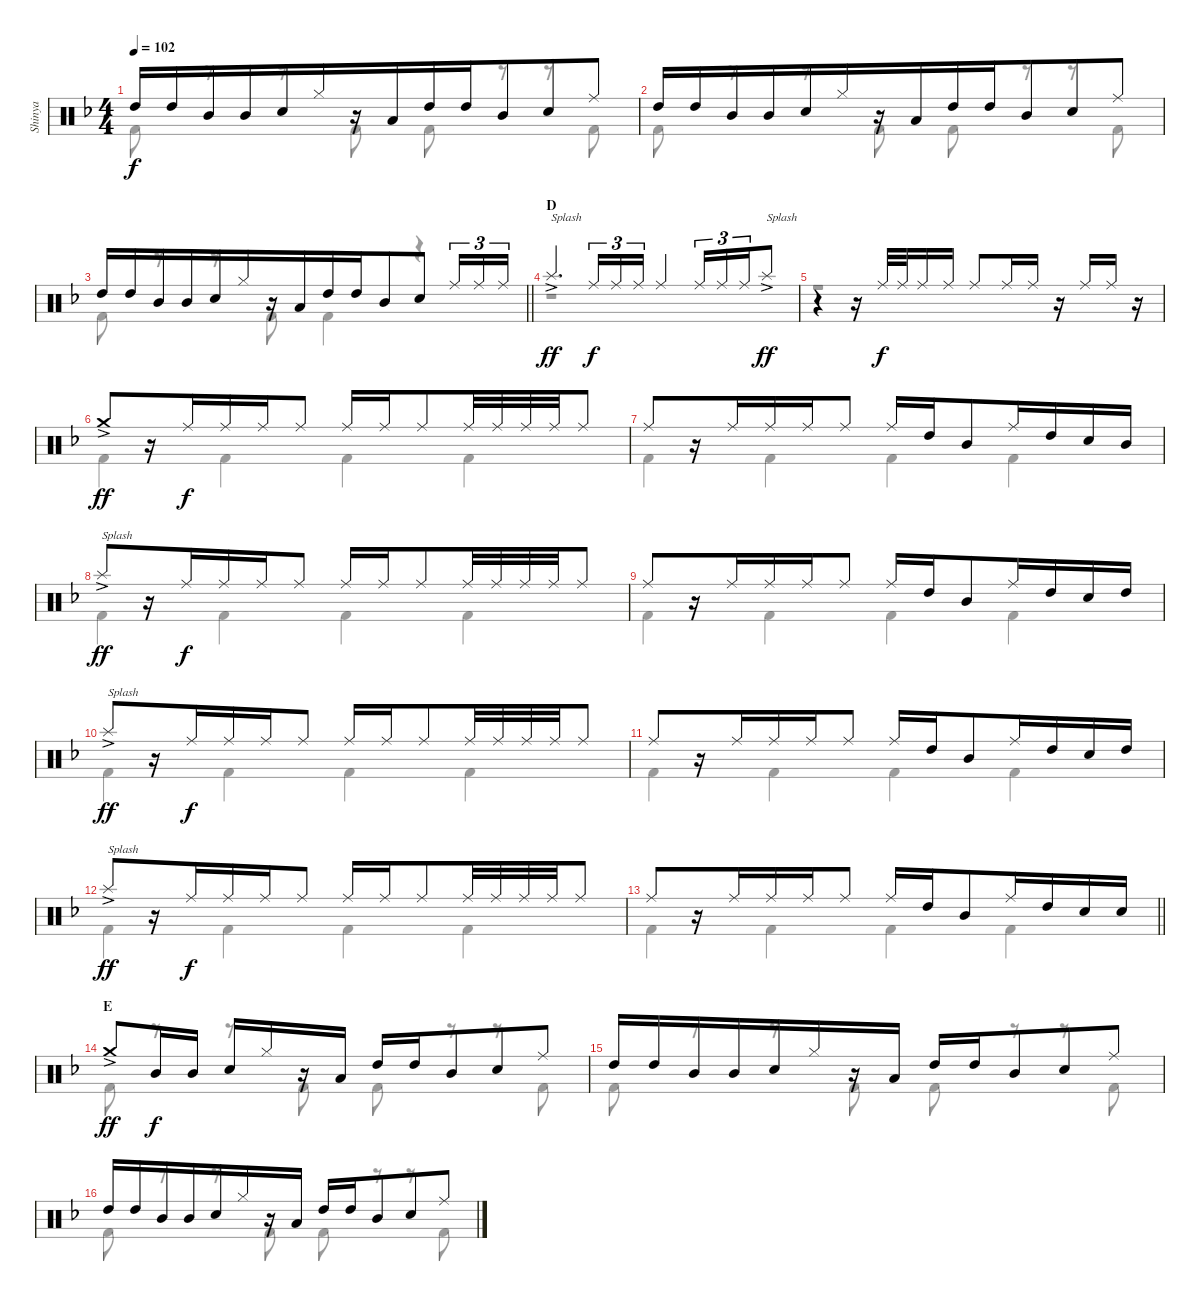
\track ("Shinya" "Shinya") {mute instrument percussion}
\staff {score}
\articulation defaults
\voice
\ts (4 4)
\tempo 102
\clef neutral
\ks f "High Tom (hit)".16{dy f} "High Tom (hit)".16 "Mid Tom (hit)".16{beam merge} "Mid Tom (hit)".16{beam merge} "Snare (hit) 2".16 "Hi-Hat (closed)".16
r.16 "Low Tom (hit)".16{beam merge} "High Tom (hit)".16{beam merge} "High Tom (hit)".16 "Mid Tom (hit)".8{beam merge} "Snare (hit) 2".8 "Ride (middle)".8 |
"High Tom (hit)".16 "High Tom (hit)".16 "Mid Tom (hit)".16{beam merge} "Mid Tom (hit)".16{beam merge} "Snare (hit) 2".16 "Hi-Hat (closed)".16 r.16 "Low Tom (hit)".16{beam merge} "High Tom (hit)".16{beam merge} "High Tom (hit)".16 "Mid Tom (hit)".8{beam merge} "Snare (hit) 2".8 "Ride (middle)".8 |
\barLineRight lightlight "High Tom (hit)".16 "High Tom (hit)".16 "Mid Tom (hit)".16{beam merge} "Mid Tom (hit)".16{beam merge} "Snare (hit) 2".16 "Hi-Hat (closed)".16
r.16 "Low Tom (hit)".16{beam merge} "High Tom (hit)".16{beam merge} "High Tom (hit)".16 "Mid Tom (hit)".8{beam merge} "Snare (hit) 2".8 "Ride (middle)".16{tu (3 2) beam merge} "Ride (middle)".16{tu (3 2)} "Ride (middle)".16{tu (3 2)} |
\section ("" "D")
"Splash (hit)"{ac}.4{d txt "Splash" dy ff} "Ride (middle)".16{tu (3 2) dy f} "Ride (middle)".16{tu (3 2) beam merge} "Ride (middle)".16{tu (3 2)} "Ride (middle)".4{beam merge} "Ride (middle)".16{tu (3 2) beam merge} "Ride (middle)".16{tu (3 2)} "Ride (middle)".16{tu (3 2) beam merge} "Splash (hit)"{ac}.8{txt "Splash" dy ff} |
r.4 r.16{beam merge} "Ride (middle)".32{dy f} "Ride (middle)".32{beam merge} "Ride (middle)".16{beam merge} "Ride (middle)".16 "Ride (middle)".8{beam merge} "Ride (middle)".16 "Ride (middle)".16 r.16 "Ride (middle)".16 "Ride (middle)".16{beam merge} r.16 |
"Crash medium (hit)"{ac}.8{dy ff} r.16 "Ride (middle)".16{dy f beam merge} "Ride (middle)".16{beam merge} "Ride (middle)".16 "Ride (middle)".8 "Ride (middle)".16 "Ride (middle)".16 "Ride (middle)".8{beam merge} "Ride (middle)".32 "Ride (middle)".32{beam merge} "Ride (middle)".32{beam merge} "Ride (middle)".32 "Ride (middle)".8 |
"Ride (middle)".8 r.16 "Ride (middle)".16{beam merge} "Ride (middle)".16{beam merge} "Ride (middle)".16 "Ride (middle)".8 "Ride (middle)".16 "High Tom (hit)".16 "Mid Tom (hit)".8{beam merge} "Ride (middle)".16 "High Tom (hit)".16{beam merge} "Snare (hit) 2".16 "Mid Tom (hit)".16 |
"Splash (hit)"{ac}.8{txt "Splash" dy ff} r.16 "Ride (middle)".16{dy f beam merge} "Ride (middle)".16{beam merge} "Ride (middle)".16 "Ride (middle)".8 "Ride (middle)".16 "Ride (middle)".16 "Ride (middle)".8{beam merge} "Ride (middle)".32 "Ride (middle)".32{beam merge} "Ride (middle)".32{beam merge} "Ride (middle)".32 "Ride (middle)".8 |
"Ride (middle)".8 r.16 "Ride (middle)".16{beam merge} "Ride (middle)".16{beam merge} "Ride (middle)".16 "Ride (middle)".8 "Ride (middle)".16 "High Tom (hit)".16 "Mid Tom (hit)".8{beam merge} "Ride (middle)".16 "High Tom (hit)".16{beam merge} "Snare (hit) 2".16 "High Tom (hit)".16 |
"Splash (hit)"{ac}.8{txt "Splash" dy ff} r.16 "Ride (middle)".16{dy f beam merge} "Ride (middle)".16{beam merge} "Ride (middle)".16 "Ride (middle)".8 "Ride (middle)".16 "Ride (middle)".16 "Ride (middle)".8{beam merge} "Ride (middle)".32 "Ride (middle)".32{beam merge} "Ride (middle)".32{beam merge} "Ride (middle)".32 "Ride (middle)".8 |
"Ride (middle)".8 r.16 "Ride (middle)".16{beam merge} "Ride (middle)".16{beam merge} "Ride (middle)".16 "Ride (middle)".8 "Ride (middle)".16 "High Tom (hit)".16 "Mid Tom (hit)".8{beam merge} "Ride (middle)".16 "High Tom (hit)".16{beam merge} "Snare (hit) 2".16 "High Tom (hit)".16 |
"Splash (hit)"{ac}.8{txt "Splash" dy ff} r.16 "Ride (middle)".16{dy f beam merge} "Ride (middle)".16{beam merge} "Ride (middle)".16 "Ride (middle)".8 "Ride (middle)".16 "Ride (middle)".16 "Ride (middle)".8{beam merge} "Ride (middle)".32 "Ride (middle)".32{beam merge} "Ride (middle)".32{beam merge} "Ride (middle)".32 "Ride (middle)".8 |
\barLineRight lightlight "Ride (middle)".8
r.16 "Ride (middle)".16{beam merge} "Ride (middle)".16{beam merge} "Ride (middle)".16 "Ride (middle)".8 "Ride (middle)".16 "High Tom (hit)".16 "Mid Tom (hit)".8{beam merge} "Ride (middle)".16 "High Tom (hit)".16{beam merge} "Snare (hit) 2".16 "Snare (hit) 2".16 |
\section ("" "E")
"Crash medium (hit)"{ac}.8{dy ff beam merge} "Mid Tom (hit)".16{dy f} "Mid Tom (hit)".16 "Snare (hit) 2".16{beam merge} "Hi-Hat (closed)".16 r.16{beam merge} "Low Tom (hit)".16 "High Tom (hit)".16{beam merge} "High Tom (hit)".16 "Mid Tom (hit)".8{beam merge} "Snare (hit) 2".8 "Ride (middle)".8 |
"High Tom (hit)".16 "High Tom (hit)".16 "Mid Tom (hit)".16{beam merge} "Mid Tom (hit)".16{beam merge} "Snare (hit) 2".16 "Hi-Hat (closed)".16 r.16 "Low Tom (hit)".16 "High Tom (hit)".16{beam merge} "High Tom (hit)".16 "Mid Tom (hit)".8{beam merge} "Snare (hit) 2".8 "Ride (middle)".8 |
"High Tom (hit)".16 "High Tom (hit)".16 "Mid Tom (hit)".16{beam merge} "Mid Tom (hit)".16{beam merge} "Snare (hit) 2".16 "Hi-Hat (closed)".16 r.16 "Low Tom (hit)".16 "High Tom (hit)".16{beam merge} "High Tom (hit)".16 "Mid Tom (hit)".8{beam merge} "Snare (hit) 2".8 "Ride (middle)".8
\voice
\clef neutral
\ottava regular
\simile none
\ks f "Kick (hit) 2".8{dy f}
r.8 r.8 "Kick (hit) 2".8 "Kick (hit) 2".8 r.8 r.8 "Kick (hit) 2".8 |
"Kick (hit) 2".8 r.8 r.8 "Kick (hit) 2".8 "Kick (hit) 2".8 r.8 r.8 "Kick (hit) 2".8 |
\barLineRight lightlight "Kick (hit) 2".8
r.8 r.8 "Kick (hit) 2".8 "Kick (hit) 2".4{beam merge} r.4 |
r.1 |
r.1 |
"Kick (hit) 2".4 "Kick (hit) 2".4 "Kick (hit) 2".4 "Kick (hit) 2".4 |
"Kick (hit) 2".4 "Kick (hit) 2".4 "Kick (hit) 2".4 "Kick (hit) 2".4 |
"Kick (hit) 2".4 "Kick (hit) 2".4 "Kick (hit) 2".4 "Kick (hit) 2".4 |
"Kick (hit) 2".4 "Kick (hit) 2".4 "Kick (hit) 2".4 "Kick (hit) 2".4 |
"Kick (hit) 2".4 "Kick (hit) 2".4 "Kick (hit) 2".4 "Kick (hit) 2".4 |
"Kick (hit) 2".4 "Kick (hit) 2".4 "Kick (hit) 2".4 "Kick (hit) 2".4 |
"Kick (hit) 2".4 "Kick (hit) 2".4 "Kick (hit) 2".4 "Kick (hit) 2".4 |
\barLineRight lightlight "Kick (hit) 2".4 "Kick (hit) 2".4 "Kick (hit) 2".4 "Kick (hit) 2".4
|
"Kick (hit) 2".8 r.8 r.8 "Kick (hit) 2".8 "Kick (hit) 2".8 r.8 r.8 "Kick (hit) 2".8 |
"Kick (hit) 2".8 r.8 r.8 "Kick (hit) 2".8 "Kick (hit) 2".8 r.8 r.8 "Kick (hit) 2".8 |
"Kick (hit) 2".8 r.8 r.8 "Kick (hit) 2".8 "Kick (hit) 2".8 r.8 r.8 "Kick (hit) 2".8
